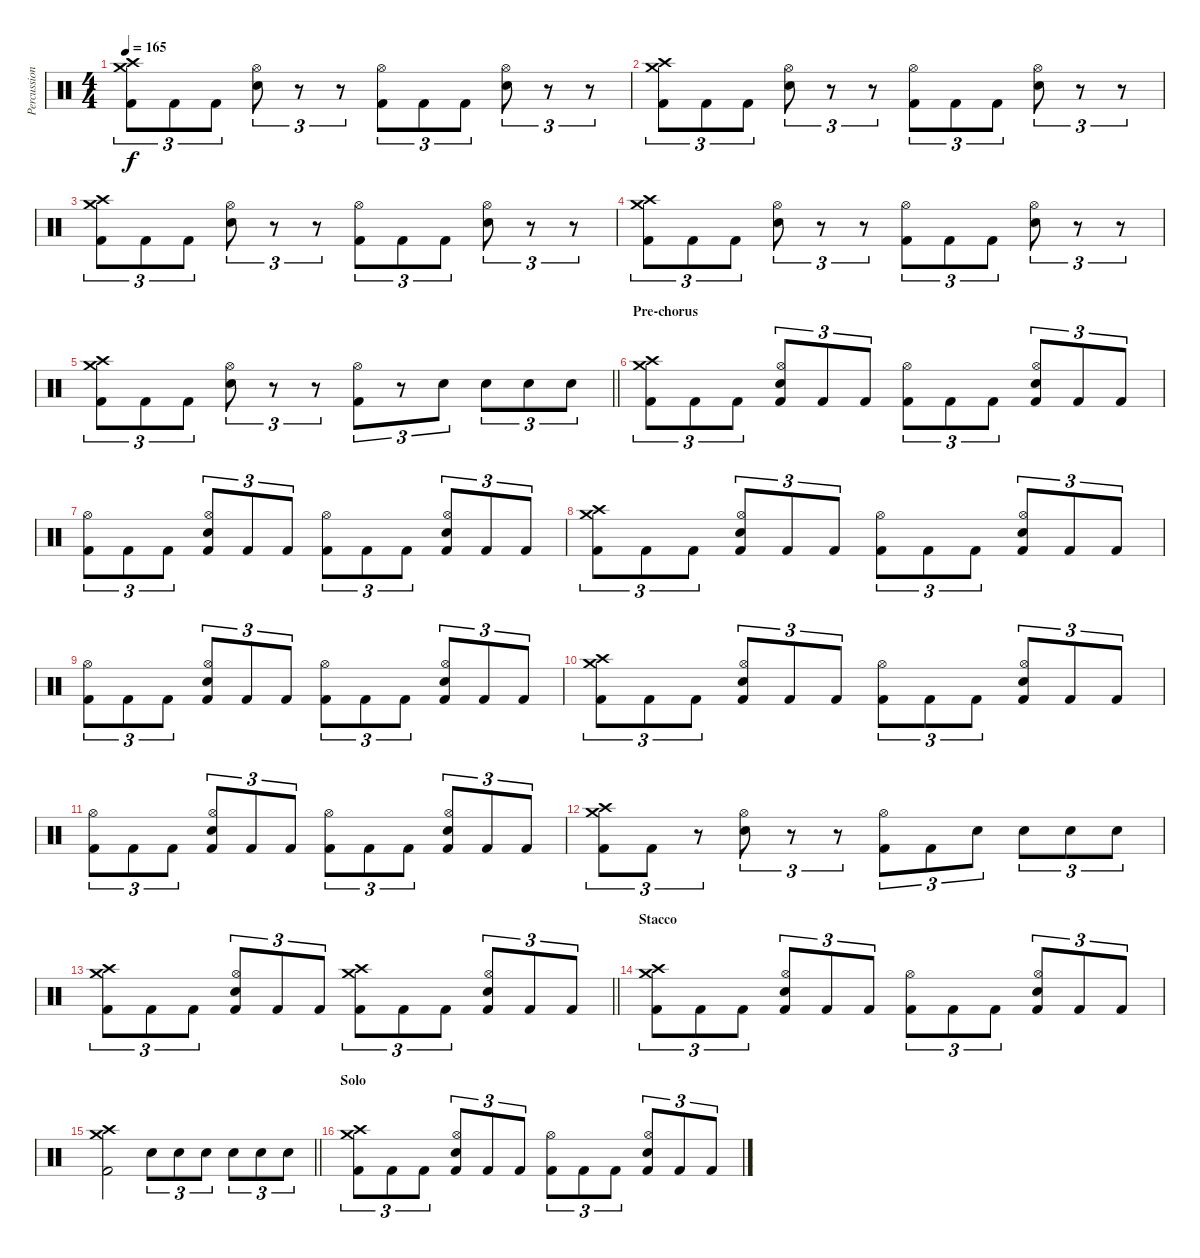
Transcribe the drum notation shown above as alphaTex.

\track ("Percussioni" "Percussion") {instrument percussion}
\staff {score}
\articulation defaults
\ts (4 4)
\tempo 165
\clef neutral
\ks c
("Crash high (hit)" "Crash medium (hit)" "Kick (hit) 2").8{tu (3 2) dy f} "Kick (hit) 2".8{tu (3 2)} "Kick (hit) 2".8{tu (3 2)} ("Hi-Hat (open)" "Electric Snare (hit)").8{tu (3 2)} r.8{tu (3 2)} r.8{tu (3 2)} ("Hi-Hat (open)" "Kick (hit) 2").8{tu (3 2)} "Kick (hit) 2".8{tu (3 2)} "Kick (hit) 2".8{tu (3 2)} ("Hi-Hat (open)" "Electric Snare (hit)").8{tu (3 2)} r.8{tu (3 2)} r.8{tu (3 2)} |
("Crash high (hit)" "Crash medium (hit)" "Kick (hit) 2").8{tu (3 2)} "Kick (hit) 2".8{tu (3 2)} "Kick (hit) 2".8{tu (3 2)} ("Hi-Hat (open)" "Electric Snare (hit)").8{tu (3 2)} r.8{tu (3 2)} r.8{tu (3 2)} ("Hi-Hat (open)" "Kick (hit) 2").8{tu (3 2)} "Kick (hit) 2".8{tu (3 2)} "Kick (hit) 2".8{tu (3 2)} ("Hi-Hat (open)" "Electric Snare (hit)").8{tu (3 2)} r.8{tu (3 2)} r.8{tu (3 2)} |
("Crash high (hit)" "Crash medium (hit)" "Kick (hit) 2").8{tu (3 2)} "Kick (hit) 2".8{tu (3 2)} "Kick (hit) 2".8{tu (3 2)} ("Hi-Hat (open)" "Electric Snare (hit)").8{tu (3 2)} r.8{tu (3 2)} r.8{tu (3 2)} ("Hi-Hat (open)" "Kick (hit) 2").8{tu (3 2)} "Kick (hit) 2".8{tu (3 2)} "Kick (hit) 2".8{tu (3 2)} ("Hi-Hat (open)" "Electric Snare (hit)").8{tu (3 2)} r.8{tu (3 2)} r.8{tu (3 2)} |
("Crash high (hit)" "Crash medium (hit)" "Kick (hit) 2").8{tu (3 2)} "Kick (hit) 2".8{tu (3 2)} "Kick (hit) 2".8{tu (3 2)} ("Hi-Hat (open)" "Electric Snare (hit)").8{tu (3 2)} r.8{tu (3 2)} r.8{tu (3 2)} ("Hi-Hat (open)" "Kick (hit) 2").8{tu (3 2)} "Kick (hit) 2".8{tu (3 2)} "Kick (hit) 2".8{tu (3 2)} ("Hi-Hat (open)" "Electric Snare (hit)").8{tu (3 2)} r.8{tu (3 2)} r.8{tu (3 2)} |
\barLineRight lightlight
("Crash high (hit)" "Crash medium (hit)" "Kick (hit) 2").8{tu (3 2)} "Kick (hit) 2".8{tu (3 2)} "Kick (hit) 2".8{tu (3 2)} ("Hi-Hat (open)" "Electric Snare (hit)").8{tu (3 2)} r.8{tu (3 2)} r.8{tu (3 2)} ("Hi-Hat (open)" "Kick (hit) 2").8{tu (3 2)} r.8{tu (3 2)} "Electric Snare (hit)".8{tu (3 2)} "Electric Snare (hit)".8{tu (3 2)} "Electric Snare (hit)".8{tu (3 2)} "Electric Snare (hit)".8{tu (3 2)} |
\section ("" "Pre-chorus")
("Crash high (hit)" "Crash medium (hit)" "Kick (hit) 2").8{tu (3 2)} "Kick (hit) 2".8{tu (3 2)} "Kick (hit) 2".8{tu (3 2)} ("Hi-Hat (open)" "Electric Snare (hit)" "Kick (hit) 2").8{tu (3 2)} "Kick (hit) 2".8{tu (3 2)} "Kick (hit) 2".8{tu (3 2)} ("Hi-Hat (open)" "Kick (hit) 2").8{tu (3 2)} "Kick (hit) 2".8{tu (3 2)} "Kick (hit) 2".8{tu (3 2)} ("Hi-Hat (open)" "Electric Snare (hit)" "Kick (hit) 2").8{tu (3 2)} "Kick (hit) 2".8{tu (3 2)} "Kick (hit) 2".8{tu (3 2)} |
("Hi-Hat (open)" "Kick (hit) 2").8{tu (3 2)} "Kick (hit) 2".8{tu (3 2)} "Kick (hit) 2".8{tu (3 2)} ("Hi-Hat (open)" "Electric Snare (hit)" "Kick (hit) 2").8{tu (3 2)} "Kick (hit) 2".8{tu (3 2)} "Kick (hit) 2".8{tu (3 2)} ("Hi-Hat (open)" "Kick (hit) 2").8{tu (3 2)} "Kick (hit) 2".8{tu (3 2)} "Kick (hit) 2".8{tu (3 2)} ("Hi-Hat (open)" "Electric Snare (hit)" "Kick (hit) 2").8{tu (3 2)} "Kick (hit) 2".8{tu (3 2)} "Kick (hit) 2".8{tu (3 2)} |
("Crash high (hit)" "Crash medium (hit)" "Kick (hit) 2").8{tu (3 2)} "Kick (hit) 2".8{tu (3 2)} "Kick (hit) 2".8{tu (3 2)} ("Hi-Hat (open)" "Electric Snare (hit)" "Kick (hit) 2").8{tu (3 2)} "Kick (hit) 2".8{tu (3 2)} "Kick (hit) 2".8{tu (3 2)} ("Hi-Hat (open)" "Kick (hit) 2").8{tu (3 2)} "Kick (hit) 2".8{tu (3 2)} "Kick (hit) 2".8{tu (3 2)} ("Hi-Hat (open)" "Electric Snare (hit)" "Kick (hit) 2").8{tu (3 2)} "Kick (hit) 2".8{tu (3 2)} "Kick (hit) 2".8{tu (3 2)} |
("Hi-Hat (open)" "Kick (hit) 2").8{tu (3 2)} "Kick (hit) 2".8{tu (3 2)} "Kick (hit) 2".8{tu (3 2)} ("Hi-Hat (open)" "Electric Snare (hit)" "Kick (hit) 2").8{tu (3 2)} "Kick (hit) 2".8{tu (3 2)} "Kick (hit) 2".8{tu (3 2)} ("Hi-Hat (open)" "Kick (hit) 2").8{tu (3 2)} "Kick (hit) 2".8{tu (3 2)} "Kick (hit) 2".8{tu (3 2)} ("Hi-Hat (open)" "Electric Snare (hit)" "Kick (hit) 2").8{tu (3 2)} "Kick (hit) 2".8{tu (3 2)} "Kick (hit) 2".8{tu (3 2)} |
("Crash high (hit)" "Crash medium (hit)" "Kick (hit) 2").8{tu (3 2)} "Kick (hit) 2".8{tu (3 2)} "Kick (hit) 2".8{tu (3 2)} ("Hi-Hat (open)" "Electric Snare (hit)" "Kick (hit) 2").8{tu (3 2)} "Kick (hit) 2".8{tu (3 2)} "Kick (hit) 2".8{tu (3 2)} ("Hi-Hat (open)" "Kick (hit) 2").8{tu (3 2)} "Kick (hit) 2".8{tu (3 2)} "Kick (hit) 2".8{tu (3 2)} ("Hi-Hat (open)" "Electric Snare (hit)" "Kick (hit) 2").8{tu (3 2)} "Kick (hit) 2".8{tu (3 2)} "Kick (hit) 2".8{tu (3 2)} |
("Hi-Hat (open)" "Kick (hit) 2").8{tu (3 2)} "Kick (hit) 2".8{tu (3 2)} "Kick (hit) 2".8{tu (3 2)} ("Hi-Hat (open)" "Electric Snare (hit)" "Kick (hit) 2").8{tu (3 2)} "Kick (hit) 2".8{tu (3 2)} "Kick (hit) 2".8{tu (3 2)} ("Hi-Hat (open)" "Kick (hit) 2").8{tu (3 2)} "Kick (hit) 2".8{tu (3 2)} "Kick (hit) 2".8{tu (3 2)} ("Hi-Hat (open)" "Electric Snare (hit)" "Kick (hit) 2").8{tu (3 2)} "Kick (hit) 2".8{tu (3 2)} "Kick (hit) 2".8{tu (3 2)} |
("Crash high (hit)" "Crash medium (hit)" "Kick (hit) 2").8{tu (3 2)} "Kick (hit) 2".8{tu (3 2)} r.8{tu (3 2)} ("Hi-Hat (open)" "Electric Snare (hit)").8{tu (3 2)} r.8{tu (3 2)} r.8{tu (3 2)} ("Hi-Hat (open)" "Kick (hit) 2").8{tu (3 2)} "Kick (hit) 2".8{tu (3 2)} "Electric Snare (hit)".8{tu (3 2)} "Electric Snare (hit)".8{tu (3 2)} "Electric Snare (hit)".8{tu (3 2)} "Electric Snare (hit)".8{tu (3 2)} |
\barLineRight lightlight
("Crash medium (hit)" "Crash high (hit)" "Kick (hit) 2").8{tu (3 2)} "Kick (hit) 2".8{tu (3 2)} "Kick (hit) 2".8{tu (3 2)} ("Hi-Hat (open)" "Electric Snare (hit)" "Kick (hit) 2").8{tu (3 2)} "Kick (hit) 2".8{tu (3 2)} "Kick (hit) 2".8{tu (3 2)} ("Crash medium (hit)" "Crash high (hit)" "Kick (hit) 2").8{tu (3 2)} "Kick (hit) 2".8{tu (3 2)} "Kick (hit) 2".8{tu (3 2)} ("Hi-Hat (open)" "Electric Snare (hit)" "Kick (hit) 2").8{tu (3 2)} "Kick (hit) 2".8{tu (3 2)} "Kick (hit) 2".8{tu (3 2)} |
\section ("" "Stacco")
("Crash high (hit)" "Crash medium (hit)" "Kick (hit) 2").8{tu (3 2)} "Kick (hit) 2".8{tu (3 2)} "Kick (hit) 2".8{tu (3 2)} ("Hi-Hat (open)" "Electric Snare (hit)" "Kick (hit) 2").8{tu (3 2)} "Kick (hit) 2".8{tu (3 2)} "Kick (hit) 2".8{tu (3 2)} ("Hi-Hat (open)" "Kick (hit) 2").8{tu (3 2)} "Kick (hit) 2".8{tu (3 2)} "Kick (hit) 2".8{tu (3 2)} ("Hi-Hat (open)" "Electric Snare (hit)" "Kick (hit) 2").8{tu (3 2)} "Kick (hit) 2".8{tu (3 2)} "Kick (hit) 2".8{tu (3 2)} |
\barLineRight lightlight
("Crash high (hit)" "Crash medium (hit)" "Kick (hit) 2").2 "Electric Snare (hit)".8{tu (3 2)} "Electric Snare (hit)".8{tu (3 2)} "Electric Snare (hit)".8{tu (3 2)} "Electric Snare (hit)".8{tu (3 2)} "Electric Snare (hit)".8{tu (3 2)} "Electric Snare (hit)".8{tu (3 2)} |
\section ("" "Solo")
("Crash high (hit)" "Crash medium (hit)" "Kick (hit) 2").8{tu (3 2)} "Kick (hit) 2".8{tu (3 2)} "Kick (hit) 2".8{tu (3 2)} ("Hi-Hat (open)" "Electric Snare (hit)" "Kick (hit) 2").8{tu (3 2)} "Kick (hit) 2".8{tu (3 2)} "Kick (hit) 2".8{tu (3 2)} ("Hi-Hat (open)" "Kick (hit) 2").8{tu (3 2)} "Kick (hit) 2".8{tu (3 2)} "Kick (hit) 2".8{tu (3 2)} ("Hi-Hat (open)" "Electric Snare (hit)" "Kick (hit) 2").8{tu (3 2)} "Kick (hit) 2".8{tu (3 2)} "Kick (hit) 2".8{tu (3 2)}
